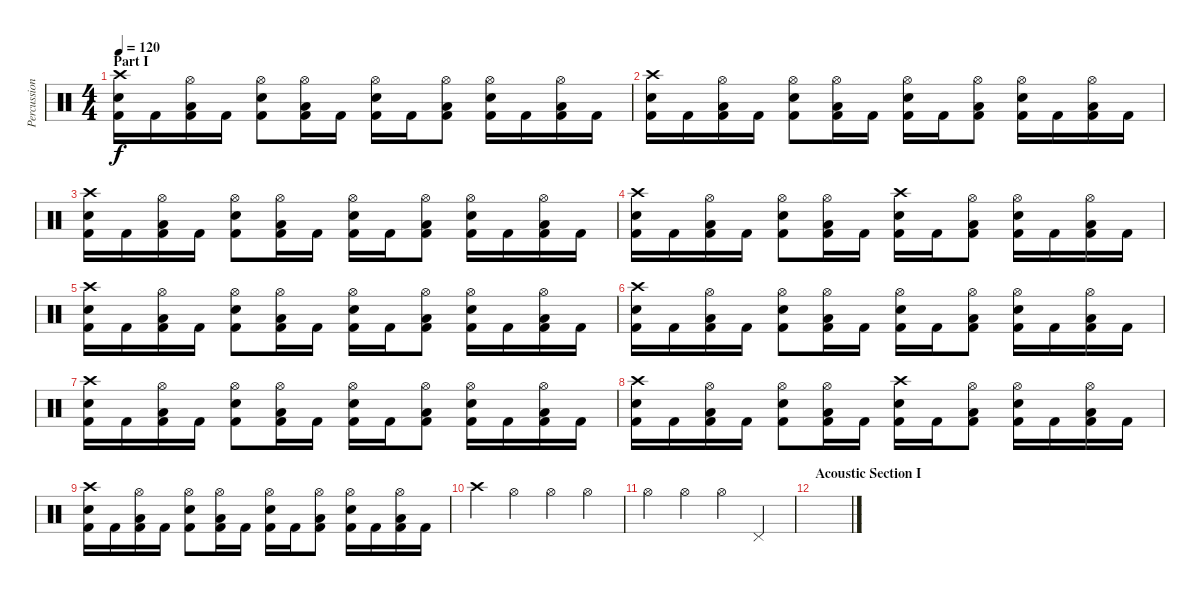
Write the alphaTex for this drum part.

\track ("Percussion" "Percussion") {instrument percussion}
\staff {score}
\articulation defaults
\ts (4 4)
\section ("" "Part I")
\tempo 120
\clef neutral
\ks c
("Crash high (hit)" "Electric Snare (hit)" "Kick (hit) 2").16{dy f} "Kick (hit) 2".16 ("Hi-Hat (open)" "Low Floor Tom (hit)" "Kick (hit) 2").16 "Kick (hit) 2".16 ("Hi-Hat (open)" "Electric Snare (hit)" "Kick (hit) 2").8 ("Hi-Hat (open)" "Low Floor Tom (hit)" "Kick (hit) 2").16 "Kick (hit) 2".16 ("Hi-Hat (open)" "Electric Snare (hit)" "Kick (hit) 2").16 "Kick (hit) 2".16 ("Hi-Hat (open)" "Low Floor Tom (hit)" "Kick (hit) 2").8 ("Hi-Hat (open)" "Electric Snare (hit)" "Kick (hit) 2").16 "Kick (hit) 2".16 ("Hi-Hat (open)" "Low Floor Tom (hit)" "Kick (hit) 2").16 "Kick (hit) 2".16 |
("Crash high (hit)" "Electric Snare (hit)" "Kick (hit) 2").16 "Kick (hit) 2".16 ("Hi-Hat (open)" "Low Floor Tom (hit)" "Kick (hit) 2").16 "Kick (hit) 2".16 ("Hi-Hat (open)" "Electric Snare (hit)" "Kick (hit) 2").8 ("Hi-Hat (open)" "Low Floor Tom (hit)" "Kick (hit) 2").16 "Kick (hit) 2".16 ("Hi-Hat (open)" "Electric Snare (hit)" "Kick (hit) 2").16 "Kick (hit) 2".16 ("Hi-Hat (open)" "Low Floor Tom (hit)" "Kick (hit) 2").8 ("Hi-Hat (open)" "Electric Snare (hit)" "Kick (hit) 2").16 "Kick (hit) 2".16 ("Hi-Hat (open)" "Low Floor Tom (hit)" "Kick (hit) 2").16 "Kick (hit) 2".16 |
("Crash high (hit)" "Electric Snare (hit)" "Kick (hit) 2").16 "Kick (hit) 2".16 ("Hi-Hat (open)" "Low Floor Tom (hit)" "Kick (hit) 2").16 "Kick (hit) 2".16 ("Hi-Hat (open)" "Electric Snare (hit)" "Kick (hit) 2").8 ("Hi-Hat (open)" "Low Floor Tom (hit)" "Kick (hit) 2").16 "Kick (hit) 2".16 ("Hi-Hat (open)" "Electric Snare (hit)" "Kick (hit) 2").16 "Kick (hit) 2".16 ("Hi-Hat (open)" "Low Floor Tom (hit)" "Kick (hit) 2").8 ("Hi-Hat (open)" "Electric Snare (hit)" "Kick (hit) 2").16 "Kick (hit) 2".16 ("Hi-Hat (open)" "Low Floor Tom (hit)" "Kick (hit) 2").16 "Kick (hit) 2".16 |
("Crash high (hit)" "Electric Snare (hit)" "Kick (hit) 2").16 "Kick (hit) 2".16 ("Hi-Hat (open)" "Low Floor Tom (hit)" "Kick (hit) 2").16 "Kick (hit) 2".16 ("Hi-Hat (open)" "Electric Snare (hit)" "Kick (hit) 2").8 ("Hi-Hat (open)" "Low Floor Tom (hit)" "Kick (hit) 2").16 "Kick (hit) 2".16 ("Crash high (hit)" "Electric Snare (hit)" "Kick (hit) 2").16 "Kick (hit) 2".16 ("Hi-Hat (open)" "Low Floor Tom (hit)" "Kick (hit) 2").8 ("Hi-Hat (open)" "Electric Snare (hit)" "Kick (hit) 2").16 "Kick (hit) 2".16 ("Hi-Hat (open)" "Low Floor Tom (hit)" "Kick (hit) 2").16 "Kick (hit) 2".16 |
("Crash high (hit)" "Electric Snare (hit)" "Kick (hit) 2").16 "Kick (hit) 2".16 ("Hi-Hat (open)" "Low Floor Tom (hit)" "Kick (hit) 2").16 "Kick (hit) 2".16 ("Hi-Hat (open)" "Electric Snare (hit)" "Kick (hit) 2").8 ("Hi-Hat (open)" "Low Floor Tom (hit)" "Kick (hit) 2").16 "Kick (hit) 2".16 ("Hi-Hat (open)" "Electric Snare (hit)" "Kick (hit) 2").16 "Kick (hit) 2".16 ("Hi-Hat (open)" "Low Floor Tom (hit)" "Kick (hit) 2").8 ("Hi-Hat (open)" "Electric Snare (hit)" "Kick (hit) 2").16 "Kick (hit) 2".16 ("Hi-Hat (open)" "Low Floor Tom (hit)" "Kick (hit) 2").16 "Kick (hit) 2".16 |
("Crash high (hit)" "Electric Snare (hit)" "Kick (hit) 2").16 "Kick (hit) 2".16 ("Hi-Hat (open)" "Low Floor Tom (hit)" "Kick (hit) 2").16 "Kick (hit) 2".16 ("Hi-Hat (open)" "Electric Snare (hit)" "Kick (hit) 2").8 ("Hi-Hat (open)" "Low Floor Tom (hit)" "Kick (hit) 2").16 "Kick (hit) 2".16 ("Hi-Hat (open)" "Electric Snare (hit)" "Kick (hit) 2").16 "Kick (hit) 2".16 ("Hi-Hat (open)" "Low Floor Tom (hit)" "Kick (hit) 2").8 ("Hi-Hat (open)" "Electric Snare (hit)" "Kick (hit) 2").16 "Kick (hit) 2".16 ("Hi-Hat (open)" "Low Floor Tom (hit)" "Kick (hit) 2").16 "Kick (hit) 2".16 |
("Crash high (hit)" "Electric Snare (hit)" "Kick (hit) 2").16 "Kick (hit) 2".16 ("Hi-Hat (open)" "Low Floor Tom (hit)" "Kick (hit) 2").16 "Kick (hit) 2".16 ("Hi-Hat (open)" "Electric Snare (hit)" "Kick (hit) 2").8 ("Hi-Hat (open)" "Low Floor Tom (hit)" "Kick (hit) 2").16 "Kick (hit) 2".16 ("Hi-Hat (open)" "Electric Snare (hit)" "Kick (hit) 2").16 "Kick (hit) 2".16 ("Hi-Hat (open)" "Low Floor Tom (hit)" "Kick (hit) 2").8 ("Hi-Hat (open)" "Electric Snare (hit)" "Kick (hit) 2").16 "Kick (hit) 2".16 ("Hi-Hat (open)" "Low Floor Tom (hit)" "Kick (hit) 2").16 "Kick (hit) 2".16 |
("Crash high (hit)" "Electric Snare (hit)" "Kick (hit) 2").16 "Kick (hit) 2".16 ("Hi-Hat (open)" "Low Floor Tom (hit)" "Kick (hit) 2").16 "Kick (hit) 2".16 ("Hi-Hat (open)" "Electric Snare (hit)" "Kick (hit) 2").8 ("Hi-Hat (open)" "Low Floor Tom (hit)" "Kick (hit) 2").16 "Kick (hit) 2".16 ("Crash high (hit)" "Electric Snare (hit)" "Kick (hit) 2").16 "Kick (hit) 2".16 ("Hi-Hat (open)" "Low Floor Tom (hit)" "Kick (hit) 2").8 ("Hi-Hat (open)" "Electric Snare (hit)" "Kick (hit) 2").16 "Kick (hit) 2".16 ("Hi-Hat (open)" "Low Floor Tom (hit)" "Kick (hit) 2").16 "Kick (hit) 2".16 |
("Crash high (hit)" "Electric Snare (hit)" "Kick (hit) 2").16 "Kick (hit) 2".16 ("Hi-Hat (open)" "Low Floor Tom (hit)" "Kick (hit) 2").16 "Kick (hit) 2".16 ("Hi-Hat (open)" "Electric Snare (hit)" "Kick (hit) 2").8 ("Hi-Hat (open)" "Low Floor Tom (hit)" "Kick (hit) 2").16 "Kick (hit) 2".16 ("Hi-Hat (open)" "Electric Snare (hit)" "Kick (hit) 2").16 "Kick (hit) 2".16 ("Hi-Hat (open)" "Low Floor Tom (hit)" "Kick (hit) 2").8 ("Hi-Hat (open)" "Electric Snare (hit)" "Kick (hit) 2").16 "Kick (hit) 2".16 ("Hi-Hat (open)" "Low Floor Tom (hit)" "Kick (hit) 2").16 "Kick (hit) 2".16 |
"Crash high (hit)".4 "Hi-Hat (open)".4 "Hi-Hat (open)".4 "Hi-Hat (open)".4 |
"Hi-Hat (open)".4 "Hi-Hat (open)".4 "Hi-Hat (open)".4 "Pedal Hi-Hat (hit)".4 |
\section ("" "Acoustic Section I")
